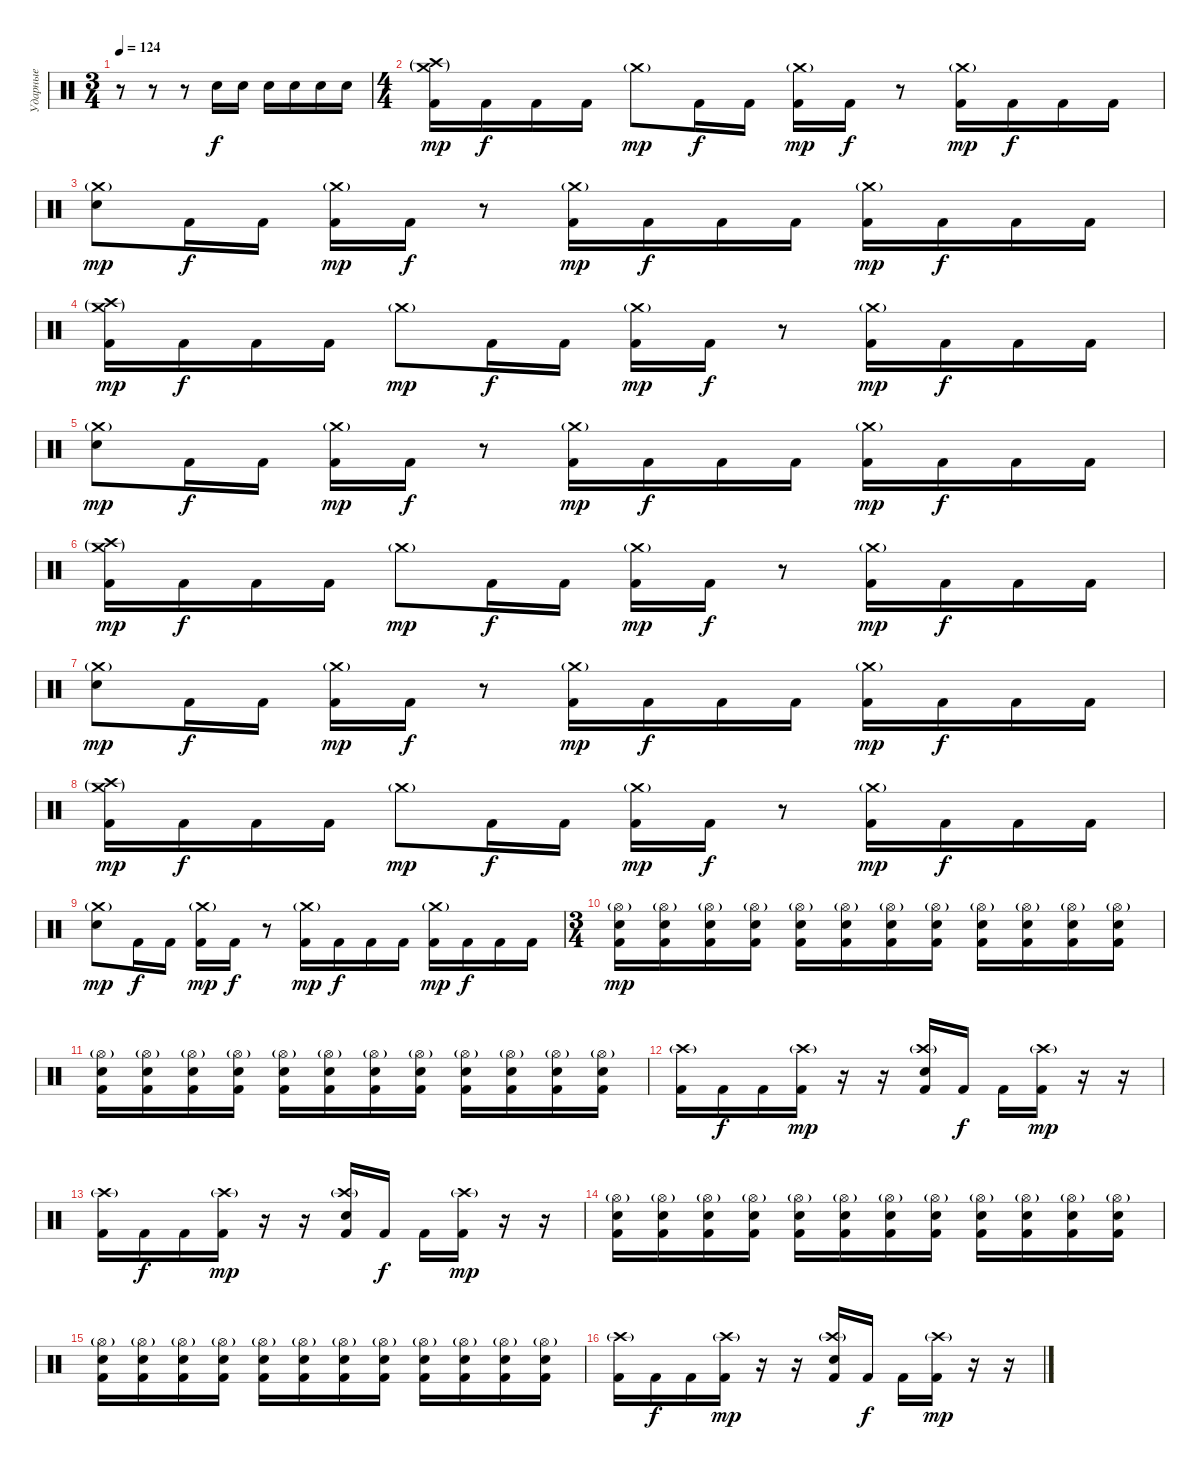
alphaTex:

\track ("Ударные" "Ударные") {instrument percussion}
\staff {score}
\articulation defaults
\ts (3 4)
\tempo 124
\clef neutral
\ks c
r.8{dy mp} r.8 r.8 "Electric Snare (hit)".16{dy f volume 16} "Electric Snare (hit)".16 "Electric Snare (hit)".16 "Electric Snare (hit)".16 "Electric Snare (hit)".16 "Electric Snare (hit)".16 |
\ts (4 4)
("Crash high (hit)"{g} "Crash medium (hit)"{g} "Kick (hit) 2").16{dy mp} "Kick (hit) 2".16{dy f} "Kick (hit) 2".16 "Kick (hit) 2".16 "Crash medium (hit)"{g}.8{dy mp} "Kick (hit) 2".16{dy f} "Kick (hit) 2".16 ("Crash medium (hit)"{g} "Kick (hit) 2").16{dy mp} "Kick (hit) 2".16{dy f} r.8 ("Crash medium (hit)"{g} "Kick (hit) 2").16{dy mp} "Kick (hit) 2".16{dy f} "Kick (hit) 2".16 "Kick (hit) 2".16 |
("Crash medium (hit)"{g} "Electric Snare (hit)").8{dy mp} "Kick (hit) 2".16{dy f} "Kick (hit) 2".16 ("Crash medium (hit)"{g} "Kick (hit) 2").16{dy mp} "Kick (hit) 2".16{dy f} r.8 ("Crash medium (hit)"{g} "Kick (hit) 2").16{dy mp} "Kick (hit) 2".16{dy f} "Kick (hit) 2".16 "Kick (hit) 2".16 ("Crash medium (hit)"{g} "Kick (hit) 2").16{dy mp} "Kick (hit) 2".16{dy f} "Kick (hit) 2".16 "Kick (hit) 2".16 |
("Crash high (hit)"{g} "Crash medium (hit)"{g} "Kick (hit) 2").16{dy mp} "Kick (hit) 2".16{dy f} "Kick (hit) 2".16 "Kick (hit) 2".16 "Crash medium (hit)"{g}.8{dy mp} "Kick (hit) 2".16{dy f} "Kick (hit) 2".16 ("Crash medium (hit)"{g} "Kick (hit) 2").16{dy mp} "Kick (hit) 2".16{dy f} r.8 ("Crash medium (hit)"{g} "Kick (hit) 2").16{dy mp} "Kick (hit) 2".16{dy f} "Kick (hit) 2".16 "Kick (hit) 2".16 |
("Crash medium (hit)"{g} "Electric Snare (hit)").8{dy mp} "Kick (hit) 2".16{dy f} "Kick (hit) 2".16 ("Crash medium (hit)"{g} "Kick (hit) 2").16{dy mp} "Kick (hit) 2".16{dy f} r.8 ("Crash medium (hit)"{g} "Kick (hit) 2").16{dy mp} "Kick (hit) 2".16{dy f} "Kick (hit) 2".16 "Kick (hit) 2".16 ("Crash medium (hit)"{g} "Kick (hit) 2").16{dy mp} "Kick (hit) 2".16{dy f} "Kick (hit) 2".16 "Kick (hit) 2".16 |
("Crash high (hit)"{g} "Crash medium (hit)"{g} "Kick (hit) 2").16{dy mp} "Kick (hit) 2".16{dy f} "Kick (hit) 2".16 "Kick (hit) 2".16 "Crash medium (hit)"{g}.8{dy mp} "Kick (hit) 2".16{dy f} "Kick (hit) 2".16 ("Crash medium (hit)"{g} "Kick (hit) 2").16{dy mp} "Kick (hit) 2".16{dy f} r.8 ("Crash medium (hit)"{g} "Kick (hit) 2").16{dy mp} "Kick (hit) 2".16{dy f} "Kick (hit) 2".16 "Kick (hit) 2".16 |
("Crash medium (hit)"{g} "Electric Snare (hit)").8{dy mp} "Kick (hit) 2".16{dy f} "Kick (hit) 2".16 ("Crash medium (hit)"{g} "Kick (hit) 2").16{dy mp} "Kick (hit) 2".16{dy f} r.8 ("Crash medium (hit)"{g} "Kick (hit) 2").16{dy mp} "Kick (hit) 2".16{dy f} "Kick (hit) 2".16 "Kick (hit) 2".16 ("Crash medium (hit)"{g} "Kick (hit) 2").16{dy mp} "Kick (hit) 2".16{dy f} "Kick (hit) 2".16 "Kick (hit) 2".16 |
("Crash high (hit)"{g} "Crash medium (hit)"{g} "Kick (hit) 2").16{dy mp} "Kick (hit) 2".16{dy f} "Kick (hit) 2".16 "Kick (hit) 2".16 "Crash medium (hit)"{g}.8{dy mp} "Kick (hit) 2".16{dy f} "Kick (hit) 2".16 ("Crash medium (hit)"{g} "Kick (hit) 2").16{dy mp} "Kick (hit) 2".16{dy f} r.8 ("Crash medium (hit)"{g} "Kick (hit) 2").16{dy mp} "Kick (hit) 2".16{dy f} "Kick (hit) 2".16 "Kick (hit) 2".16 |
("Crash medium (hit)"{g} "Electric Snare (hit)").8{dy mp} "Kick (hit) 2".16{dy f} "Kick (hit) 2".16 ("Crash medium (hit)"{g} "Kick (hit) 2").16{dy mp} "Kick (hit) 2".16{dy f} r.8 ("Crash medium (hit)"{g} "Kick (hit) 2").16{dy mp} "Kick (hit) 2".16{dy f} "Kick (hit) 2".16 "Kick (hit) 2".16 ("Crash medium (hit)"{g} "Kick (hit) 2").16{dy mp} "Kick (hit) 2".16{dy f} "Kick (hit) 2".16 "Kick (hit) 2".16 |
\ts (3 4)
("Hi-Hat (open)"{g} "Electric Snare (hit)" "Kick (hit) 2").16{dy mp} ("Hi-Hat (open)"{g} "Electric Snare (hit)" "Kick (hit) 2").16 ("Hi-Hat (open)"{g} "Electric Snare (hit)" "Kick (hit) 2").16 ("Hi-Hat (open)"{g} "Electric Snare (hit)" "Kick (hit) 2").16 ("Hi-Hat (open)"{g} "Electric Snare (hit)" "Kick (hit) 2").16 ("Hi-Hat (open)"{g} "Electric Snare (hit)" "Kick (hit) 2").16 ("Hi-Hat (open)"{g} "Electric Snare (hit)" "Kick (hit) 2").16 ("Hi-Hat (open)"{g} "Electric Snare (hit)" "Kick (hit) 2").16 ("Hi-Hat (open)"{g} "Electric Snare (hit)" "Kick (hit) 2").16 ("Hi-Hat (open)"{g} "Electric Snare (hit)" "Kick (hit) 2").16 ("Hi-Hat (open)"{g} "Electric Snare (hit)" "Kick (hit) 2").16 ("Hi-Hat (open)"{g} "Electric Snare (hit)" "Kick (hit) 2").16 |
("Hi-Hat (open)"{g} "Electric Snare (hit)" "Kick (hit) 2").16 ("Hi-Hat (open)"{g} "Electric Snare (hit)" "Kick (hit) 2").16 ("Hi-Hat (open)"{g} "Electric Snare (hit)" "Kick (hit) 2").16 ("Hi-Hat (open)"{g} "Electric Snare (hit)" "Kick (hit) 2").16 ("Hi-Hat (open)"{g} "Electric Snare (hit)" "Kick (hit) 2").16 ("Hi-Hat (open)"{g} "Electric Snare (hit)" "Kick (hit) 2").16 ("Hi-Hat (open)"{g} "Electric Snare (hit)" "Kick (hit) 2").16 ("Hi-Hat (open)"{g} "Electric Snare (hit)" "Kick (hit) 2").16 ("Hi-Hat (open)"{g} "Electric Snare (hit)" "Kick (hit) 2").16 ("Hi-Hat (open)"{g} "Electric Snare (hit)" "Kick (hit) 2").16 ("Hi-Hat (open)"{g} "Electric Snare (hit)" "Kick (hit) 2").16 ("Hi-Hat (open)"{g} "Electric Snare (hit)" "Kick (hit) 2").16 |
("Crash high (hit)"{g} "Kick (hit) 2").16 "Kick (hit) 2".16{dy f} "Kick (hit) 2".16 ("Crash high (hit)"{g} "Kick (hit) 2").16{dy mp} r.16 r.16 ("Crash high (hit)"{g} "Electric Snare (hit)" "Kick (hit) 2").16 "Kick (hit) 2".16{dy f} "Kick (hit) 2".16 ("Crash high (hit)"{g} "Kick (hit) 2").16{dy mp} r.16 r.16 |
("Crash high (hit)"{g} "Kick (hit) 2").16 "Kick (hit) 2".16{dy f} "Kick (hit) 2".16 ("Crash high (hit)"{g} "Kick (hit) 2").16{dy mp} r.16 r.16 ("Crash high (hit)"{g} "Electric Snare (hit)" "Kick (hit) 2").16 "Kick (hit) 2".16{dy f} "Kick (hit) 2".16 ("Crash high (hit)"{g} "Kick (hit) 2").16{dy mp} r.16 r.16 |
("Hi-Hat (open)"{g} "Electric Snare (hit)" "Kick (hit) 2").16 ("Hi-Hat (open)"{g} "Electric Snare (hit)" "Kick (hit) 2").16 ("Hi-Hat (open)"{g} "Electric Snare (hit)" "Kick (hit) 2").16 ("Hi-Hat (open)"{g} "Electric Snare (hit)" "Kick (hit) 2").16 ("Hi-Hat (open)"{g} "Electric Snare (hit)" "Kick (hit) 2").16 ("Hi-Hat (open)"{g} "Electric Snare (hit)" "Kick (hit) 2").16 ("Hi-Hat (open)"{g} "Electric Snare (hit)" "Kick (hit) 2").16 ("Hi-Hat (open)"{g} "Electric Snare (hit)" "Kick (hit) 2").16 ("Hi-Hat (open)"{g} "Electric Snare (hit)" "Kick (hit) 2").16 ("Hi-Hat (open)"{g} "Electric Snare (hit)" "Kick (hit) 2").16 ("Hi-Hat (open)"{g} "Electric Snare (hit)" "Kick (hit) 2").16 ("Hi-Hat (open)"{g} "Electric Snare (hit)" "Kick (hit) 2").16 |
("Hi-Hat (open)"{g} "Electric Snare (hit)" "Kick (hit) 2").16 ("Hi-Hat (open)"{g} "Electric Snare (hit)" "Kick (hit) 2").16 ("Hi-Hat (open)"{g} "Electric Snare (hit)" "Kick (hit) 2").16 ("Hi-Hat (open)"{g} "Electric Snare (hit)" "Kick (hit) 2").16 ("Hi-Hat (open)"{g} "Electric Snare (hit)" "Kick (hit) 2").16 ("Hi-Hat (open)"{g} "Electric Snare (hit)" "Kick (hit) 2").16 ("Hi-Hat (open)"{g} "Electric Snare (hit)" "Kick (hit) 2").16 ("Hi-Hat (open)"{g} "Electric Snare (hit)" "Kick (hit) 2").16 ("Hi-Hat (open)"{g} "Electric Snare (hit)" "Kick (hit) 2").16 ("Hi-Hat (open)"{g} "Electric Snare (hit)" "Kick (hit) 2").16 ("Hi-Hat (open)"{g} "Electric Snare (hit)" "Kick (hit) 2").16 ("Hi-Hat (open)"{g} "Electric Snare (hit)" "Kick (hit) 2").16 |
("Crash high (hit)"{g} "Kick (hit) 2").16 "Kick (hit) 2".16{dy f} "Kick (hit) 2".16 ("Crash high (hit)"{g} "Kick (hit) 2").16{dy mp} r.16 r.16 ("Crash high (hit)"{g} "Electric Snare (hit)" "Kick (hit) 2").16 "Kick (hit) 2".16{dy f} "Kick (hit) 2".16 ("Crash high (hit)"{g} "Kick (hit) 2").16{dy mp} r.16 r.16
